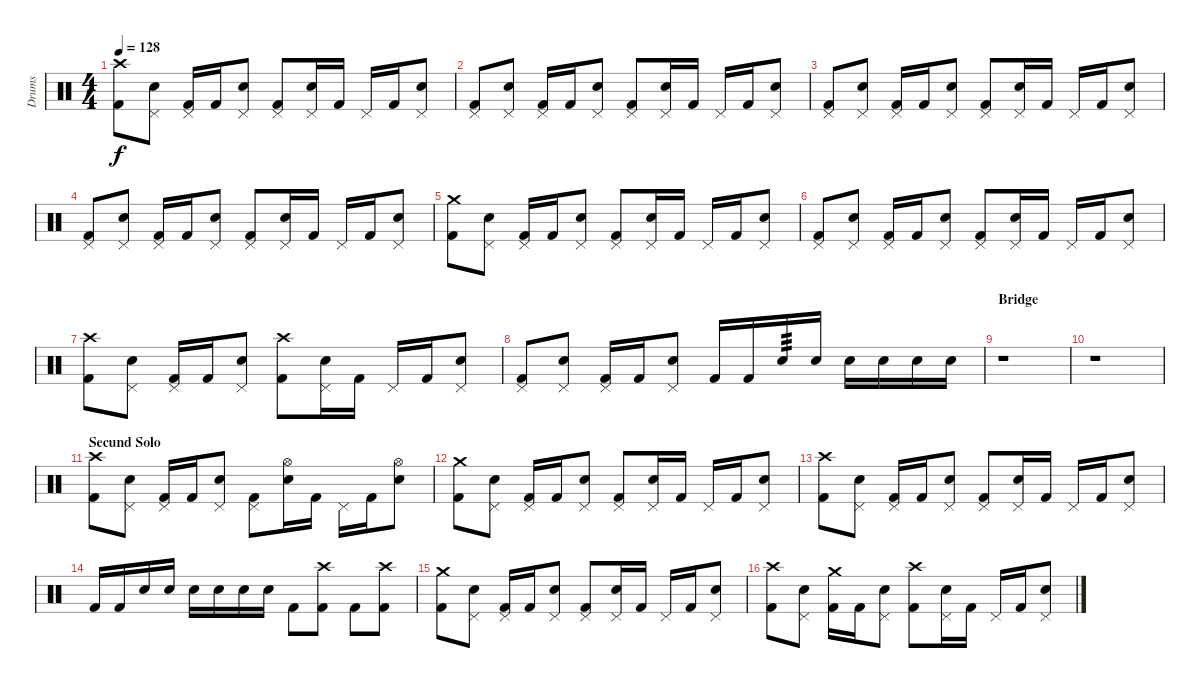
\track ("Drums" "Drums") {instrument percussion}
\staff {score}
\articulation defaults
\ts (4 4)
\tempo 128
\clef neutral
\ks c
("Crash high (hit)" "Kick (hit) 2").8{dy f} ("Pedal Hi-Hat (hit)" "Snare (hit) 2").8 ("Pedal Hi-Hat (hit)" "Kick (hit) 2").16 "Kick (hit) 2".16 ("Pedal Hi-Hat (hit)" "Snare (hit) 2").8 ("Pedal Hi-Hat (hit)" "Kick (hit) 2").8 ("Pedal Hi-Hat (hit)" "Snare (hit) 2").16 "Kick (hit) 2".16 "Pedal Hi-Hat (hit)".16 "Kick (hit) 2".16 ("Pedal Hi-Hat (hit)" "Snare (hit) 2").8 |
("Pedal Hi-Hat (hit)" "Kick (hit) 2").8 ("Pedal Hi-Hat (hit)" "Snare (hit) 2").8 ("Pedal Hi-Hat (hit)" "Kick (hit) 2").16 "Kick (hit) 2".16 ("Pedal Hi-Hat (hit)" "Snare (hit) 2").8 ("Pedal Hi-Hat (hit)" "Kick (hit) 2").8 ("Pedal Hi-Hat (hit)" "Snare (hit) 2").16 "Kick (hit) 2".16 "Pedal Hi-Hat (hit)".16 "Kick (hit) 2".16 ("Pedal Hi-Hat (hit)" "Snare (hit) 2").8 |
("Pedal Hi-Hat (hit)" "Kick (hit) 2").8 ("Pedal Hi-Hat (hit)" "Snare (hit) 2").8 ("Pedal Hi-Hat (hit)" "Kick (hit) 2").16 "Kick (hit) 2".16 ("Pedal Hi-Hat (hit)" "Snare (hit) 2").8 ("Pedal Hi-Hat (hit)" "Kick (hit) 2").8 ("Pedal Hi-Hat (hit)" "Snare (hit) 2").16 "Kick (hit) 2".16 "Pedal Hi-Hat (hit)".16 "Kick (hit) 2".16 ("Pedal Hi-Hat (hit)" "Snare (hit) 2").8 |
("Pedal Hi-Hat (hit)" "Kick (hit) 2").8 ("Pedal Hi-Hat (hit)" "Snare (hit) 2").8 ("Pedal Hi-Hat (hit)" "Kick (hit) 2").16 "Kick (hit) 2".16 ("Pedal Hi-Hat (hit)" "Snare (hit) 2").8 ("Pedal Hi-Hat (hit)" "Kick (hit) 2").8 ("Pedal Hi-Hat (hit)" "Snare (hit) 2").16 "Kick (hit) 2".16 "Pedal Hi-Hat (hit)".16 "Kick (hit) 2".16 ("Pedal Hi-Hat (hit)" "Snare (hit) 2").8 |
("Crash medium (hit)" "Kick (hit) 2").8 ("Pedal Hi-Hat (hit)" "Snare (hit) 2").8 ("Pedal Hi-Hat (hit)" "Kick (hit) 2").16 "Kick (hit) 2".16 ("Pedal Hi-Hat (hit)" "Snare (hit) 2").8 ("Pedal Hi-Hat (hit)" "Kick (hit) 2").8 ("Pedal Hi-Hat (hit)" "Snare (hit) 2").16 "Kick (hit) 2".16 "Pedal Hi-Hat (hit)".16 "Kick (hit) 2".16 ("Pedal Hi-Hat (hit)" "Snare (hit) 2").8 |
("Pedal Hi-Hat (hit)" "Kick (hit) 2").8 ("Pedal Hi-Hat (hit)" "Snare (hit) 2").8 ("Pedal Hi-Hat (hit)" "Kick (hit) 2").16 "Kick (hit) 2".16 ("Pedal Hi-Hat (hit)" "Snare (hit) 2").8 ("Pedal Hi-Hat (hit)" "Kick (hit) 2").8 ("Pedal Hi-Hat (hit)" "Snare (hit) 2").16 "Kick (hit) 2".16 "Pedal Hi-Hat (hit)".16 "Kick (hit) 2".16 ("Pedal Hi-Hat (hit)" "Snare (hit) 2").8 |
("Crash high (hit)" "Kick (hit) 2").8 ("Pedal Hi-Hat (hit)" "Snare (hit) 2").8 ("Pedal Hi-Hat (hit)" "Kick (hit) 2").16 "Kick (hit) 2".16 ("Pedal Hi-Hat (hit)" "Snare (hit) 2").8 ("Crash high (hit)" "Kick (hit) 2").8 ("Pedal Hi-Hat (hit)" "Snare (hit) 2").16 "Kick (hit) 2".16 "Pedal Hi-Hat (hit)".16 "Kick (hit) 2".16 ("Pedal Hi-Hat (hit)" "Snare (hit) 2").8 |
("Pedal Hi-Hat (hit)" "Kick (hit) 2").8 ("Pedal Hi-Hat (hit)" "Snare (hit) 2").8 ("Pedal Hi-Hat (hit)" "Kick (hit) 2").16 "Kick (hit) 2".16 ("Pedal Hi-Hat (hit)" "Snare (hit) 2").8 "Kick (hit) 2".16 "Kick (hit) 2".16 "Snare (hit) 2".16{tp 3} "Snare (hit) 2".16 "Snare (hit) 2".16 "Snare (hit) 2".16 "Snare (hit) 2".16 "Snare (hit) 2".16 |
\section ("" "Bridge")
r.1 |
r.1 |
\section ("" "Secund Solo")
("Crash high (hit)" "Kick (hit) 2").8 ("Pedal Hi-Hat (hit)" "Snare (hit) 2").8 ("Pedal Hi-Hat (hit)" "Kick (hit) 2").16 "Kick (hit) 2".16 ("Pedal Hi-Hat (hit)" "Snare (hit) 2").8 ("Pedal Hi-Hat (hit)" "Kick (hit) 2").8 ("Hi-Hat (open)" "Snare (hit) 2").16 "Kick (hit) 2".16 "Pedal Hi-Hat (hit)".16 "Kick (hit) 2".16 ("Hi-Hat (open)" "Snare (hit) 2").8 |
("Crash medium (hit)" "Kick (hit) 2").8 ("Pedal Hi-Hat (hit)" "Snare (hit) 2").8 ("Pedal Hi-Hat (hit)" "Kick (hit) 2").16 "Kick (hit) 2".16 ("Pedal Hi-Hat (hit)" "Snare (hit) 2").8 ("Pedal Hi-Hat (hit)" "Kick (hit) 2").8 ("Pedal Hi-Hat (hit)" "Snare (hit) 2").16 "Kick (hit) 2".16 "Pedal Hi-Hat (hit)".16 "Kick (hit) 2".16 ("Pedal Hi-Hat (hit)" "Snare (hit) 2").8 |
("Crash high (hit)" "Kick (hit) 2").8 ("Pedal Hi-Hat (hit)" "Snare (hit) 2").8 ("Pedal Hi-Hat (hit)" "Kick (hit) 2").16 "Kick (hit) 2".16 ("Pedal Hi-Hat (hit)" "Snare (hit) 2").8 ("Pedal Hi-Hat (hit)" "Kick (hit) 2").8 ("Pedal Hi-Hat (hit)" "Snare (hit) 2").16 "Kick (hit) 2".16 "Pedal Hi-Hat (hit)".16 "Kick (hit) 2".16 ("Pedal Hi-Hat (hit)" "Snare (hit) 2").8 |
"Kick (hit) 2".16 "Kick (hit) 2".16 "Snare (hit) 2".16 "Snare (hit) 2".16 "Snare (hit) 2".16 "Snare (hit) 2".16 "Snare (hit) 2".16 "Snare (hit) 2".16 "Kick (hit) 2".8 ("Crash high (hit)" "Kick (hit) 2").8 "Kick (hit) 2".8 ("Crash high (hit)" "Kick (hit) 2").8 |
("Crash medium (hit)" "Kick (hit) 2").8 ("Pedal Hi-Hat (hit)" "Snare (hit) 2").8 ("Pedal Hi-Hat (hit)" "Kick (hit) 2").16 "Kick (hit) 2".16 ("Pedal Hi-Hat (hit)" "Snare (hit) 2").8 ("Pedal Hi-Hat (hit)" "Kick (hit) 2").8 ("Pedal Hi-Hat (hit)" "Snare (hit) 2").16 "Kick (hit) 2".16 "Pedal Hi-Hat (hit)".16 "Kick (hit) 2".16 ("Pedal Hi-Hat (hit)" "Snare (hit) 2").8 |
("Crash high (hit)" "Kick (hit) 2").8 ("Pedal Hi-Hat (hit)" "Snare (hit) 2").8 ("Crash medium (hit)" "Kick (hit) 2").16 "Kick (hit) 2".16 ("Pedal Hi-Hat (hit)" "Snare (hit) 2").8 ("Crash high (hit)" "Kick (hit) 2").8 ("Pedal Hi-Hat (hit)" "Snare (hit) 2").16 "Kick (hit) 2".16 "Pedal Hi-Hat (hit)".16 "Kick (hit) 2".16 ("Pedal Hi-Hat (hit)" "Snare (hit) 2").8
